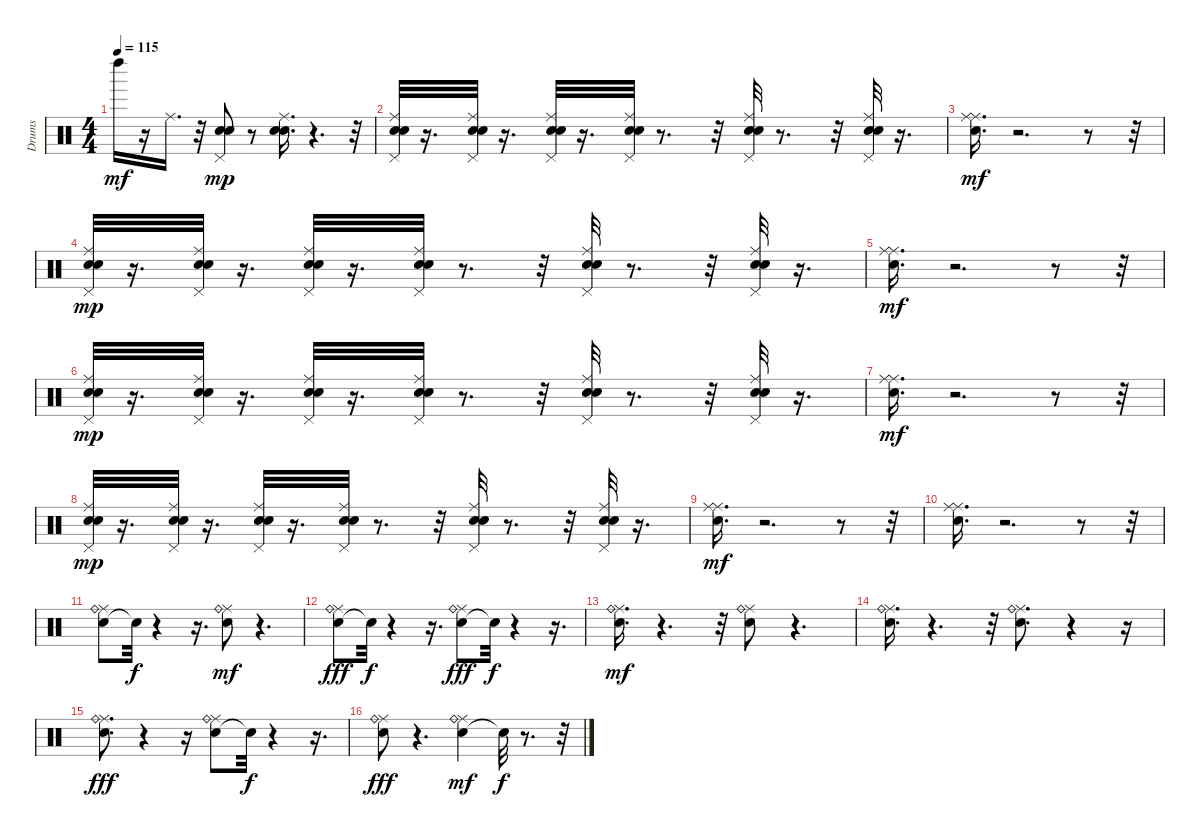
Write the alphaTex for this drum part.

\track ("Drums" "Drums") {instrument percussion}
\staff {score}
\articulation defaults
\ts (4 4)
\tempo 115
\clef neutral
\ks c "Left Maraca (hit)".16{dy mf}
r.16 "Ride (middle)".16{d} r.32 ("Snare (hit) 2" "Snare (hit) 2" "Pedal Hi-Hat (hit)").8{dy mp} r.8 ("Snare (hit) 2" "Snare (hit) 2" "Ride (middle)").16{d} r.4{d} r.32 |
("Snare (hit) 2" "Snare (hit) 2" "Pedal Hi-Hat (hit)" "Ride (middle)").32 r.16{d} ("Snare (hit) 2" "Snare (hit) 2" "Pedal Hi-Hat (hit)" "Ride (middle)").32 r.16{d} ("Snare (hit) 2" "Snare (hit) 2" "Pedal Hi-Hat (hit)" "Ride (middle)").32 r.16{d} ("Snare (hit) 2" "Snare (hit) 2" "Pedal Hi-Hat (hit)" "Ride (middle)").32 r.8{d} r.32 ("Snare (hit) 2" "Snare (hit) 2" "Pedal Hi-Hat (hit)" "Ride (middle)").32 r.8{d} r.32 ("Snare (hit) 2" "Snare (hit) 2" "Pedal Hi-Hat (hit)" "Ride (middle)").32 r.16{d} |
("Snare (hit) 2" "Ride (middle)" "Ride (middle)").16{d dy mf} r.2{d} r.8 r.32 |
("Snare (hit) 2" "Snare (hit) 2" "Pedal Hi-Hat (hit)" "Ride (middle)").32{dy mp} r.16{d} ("Snare (hit) 2" "Snare (hit) 2" "Pedal Hi-Hat (hit)" "Ride (middle)").32 r.16{d} ("Snare (hit) 2" "Snare (hit) 2" "Pedal Hi-Hat (hit)" "Ride (middle)").32 r.16{d} ("Snare (hit) 2" "Snare (hit) 2" "Pedal Hi-Hat (hit)" "Ride (middle)").32 r.8{d} r.32 ("Snare (hit) 2" "Snare (hit) 2" "Pedal Hi-Hat (hit)" "Ride (middle)").32 r.8{d} r.32 ("Snare (hit) 2" "Snare (hit) 2" "Pedal Hi-Hat (hit)" "Ride (middle)").32 r.16{d} |
("Snare (hit) 2" "Ride (middle)" "Ride (middle)").16{d dy mf} r.2{d} r.8 r.32 |
("Snare (hit) 2" "Snare (hit) 2" "Pedal Hi-Hat (hit)" "Ride (middle)").32{dy mp} r.16{d} ("Snare (hit) 2" "Snare (hit) 2" "Pedal Hi-Hat (hit)" "Ride (middle)").32 r.16{d} ("Snare (hit) 2" "Snare (hit) 2" "Pedal Hi-Hat (hit)" "Ride (middle)").32 r.16{d} ("Snare (hit) 2" "Snare (hit) 2" "Pedal Hi-Hat (hit)" "Ride (middle)").32 r.8{d} r.32 ("Snare (hit) 2" "Snare (hit) 2" "Pedal Hi-Hat (hit)" "Ride (middle)").32 r.8{d} r.32 ("Snare (hit) 2" "Snare (hit) 2" "Pedal Hi-Hat (hit)" "Ride (middle)").32 r.16{d} |
("Snare (hit) 2" "Ride (middle)" "Ride (middle)").16{d dy mf} r.2{d} r.8 r.32 |
("Snare (hit) 2" "Snare (hit) 2" "Pedal Hi-Hat (hit)" "Ride (middle)").32{dy mp} r.16{d} ("Snare (hit) 2" "Snare (hit) 2" "Pedal Hi-Hat (hit)" "Ride (middle)").32 r.16{d} ("Snare (hit) 2" "Snare (hit) 2" "Pedal Hi-Hat (hit)" "Ride (middle)").32 r.16{d} ("Snare (hit) 2" "Snare (hit) 2" "Pedal Hi-Hat (hit)" "Ride (middle)").32 r.8{d} r.32 ("Snare (hit) 2" "Snare (hit) 2" "Pedal Hi-Hat (hit)" "Ride (middle)").32 r.8{d} r.32 ("Snare (hit) 2" "Snare (hit) 2" "Pedal Hi-Hat (hit)" "Ride (middle)").32 r.16{d} |
("Snare (hit) 2" "Ride (middle)" "Ride (middle)").16{d dy mf} r.2{d} r.8 r.32 |
("Snare (hit) 2" "Ride (middle)" "Ride (middle)").16{d} r.2{d} r.8 r.32 |
("Snare (hit) 2" "Ride (middle)" "Ride (bell)").8 "Snare (hit)"{t}.32{dy f} r.4 r.16{d} ("Snare (hit) 2" "Ride (middle)" "Ride (bell)").8{dy mf} r.4{d} |
("Snare (hit) 2" "Ride (middle)" "Ride (bell)").8{dy fff} "Snare (hit)"{t}.32{dy f} r.4 r.16{d} ("Snare (hit) 2" "Ride (middle)" "Ride (bell)").8{dy fff} "Snare (hit)"{t}.32{dy f} r.4 r.16{d} |
("Snare (hit) 2" "Ride (middle)" "Ride (bell)").16{d dy mf} r.4{d} r.32 ("Snare (hit) 2" "Ride (middle)" "Ride (bell)").8 r.4{d} |
("Snare (hit) 2" "Ride (middle)" "Ride (bell)").16{d} r.4{d} r.32 ("Snare (hit) 2" "Ride (middle)" "Ride (bell)").8{d} r.4 r.16 |
("Snare (hit) 2" "Ride (middle)" "Ride (bell)").8{d dy fff} r.4 r.16 ("Snare (hit) 2" "Ride (middle)" "Ride (bell)").8 "Snare (hit)"{t}.32{dy f} r.4 r.16{d} |
("Snare (hit) 2" "Ride (middle)" "Ride (bell)").8{dy fff} r.4{d} ("Snare (hit) 2" "Ride (middle)" "Ride (bell)").4{dy mf} "Snare (hit)"{t}.32{dy f} r.8{d} r.32
